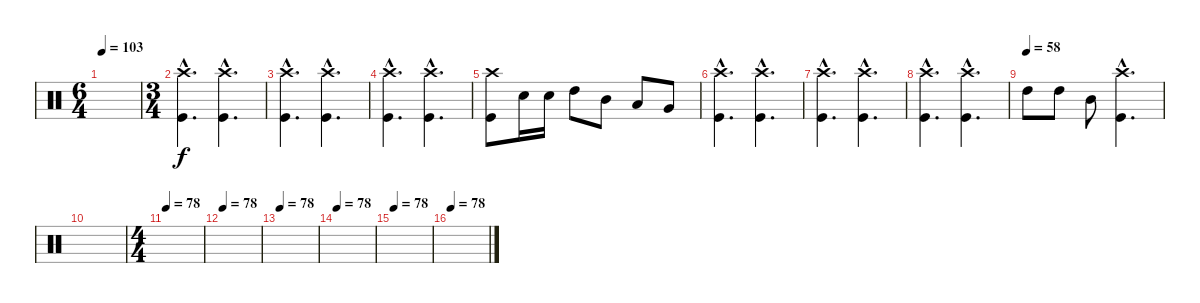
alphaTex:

\track "" {instrument percussion}
\staff {score}
\articulation defaults
\ts (6 4)
\tempo 103
\clef neutral
\ks c
|
\ts (3 4)
("Kick (hit)"{hac} "Crash high (hit)"{hac}).4{d} ("Kick (hit)"{hac} "Crash high (hit)"{hac}).4{d} |
("Kick (hit)"{hac} "Crash high (hit)"{hac}).4{d} ("Kick (hit)"{hac} "Crash high (hit)"{hac}).4{d} |
("Kick (hit)"{hac} "Crash high (hit)"{hac}).4{d} ("Kick (hit)"{hac} "Crash high (hit)"{hac}).4{d} |
("Kick (hit)" "Crash high (hit)").8 "Snare (hit) 2".16 "Snare (hit) 2".16 "High Tom (hit)".8 "Mid Tom (hit)".8 "Low Tom (hit)".8 "Very Low Tom (hit)".8 |
("Kick (hit)"{hac} "Crash high (hit)"{hac}).4{d} ("Kick (hit)"{hac} "Crash high (hit)"{hac}).4{d} |
("Kick (hit)"{hac} "Crash high (hit)"{hac}).4{d} ("Kick (hit)"{hac} "Crash high (hit)"{hac}).4{d} |
("Kick (hit)"{hac} "Crash high (hit)"{hac}).4{d} ("Kick (hit)"{hac} "Crash high (hit)"{hac}).4{d} |
\tempo (58)
"High Tom (hit)".8 "High Tom (hit)".8 "Mid Tom (hit)".8 ("Crash high (hit)"{hac} "Kick (hit)"{hac}).4{d} |
|
\ts (4 4)
\tempo 78
|
\tempo 78
|
\tempo 78
|
\tempo 78
|
\tempo 78
|
\tempo 78
